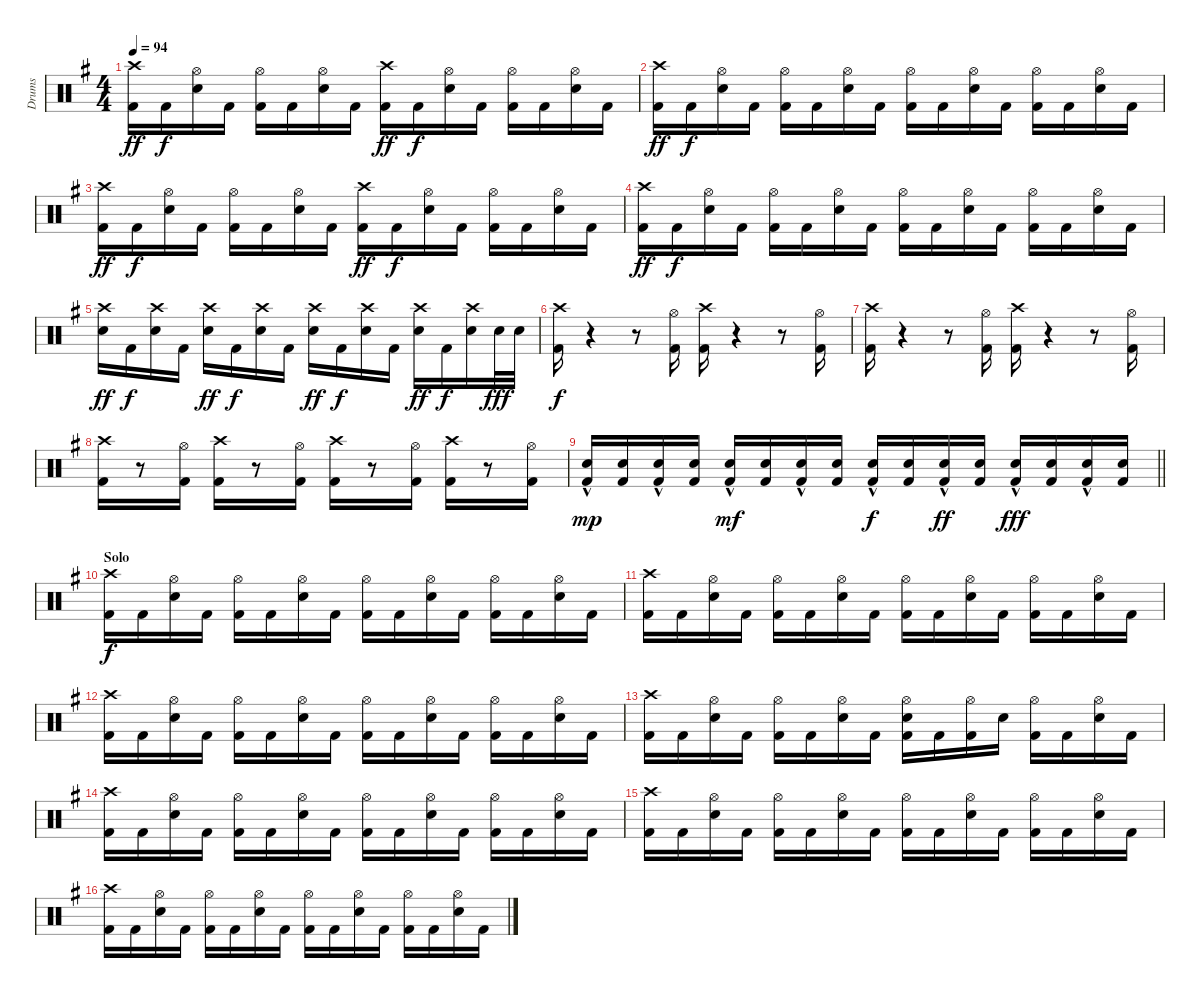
\track ("Drums" "Drums") {instrument percussion}
\staff {score}
\articulation defaults
\ts (4 4)
\tempo 94
\clef neutral
\ks g
("Crash high (hit)" "Kick (hit) 2").16{dy ff} "Kick (hit) 2".16{dy f} ("Hi-Hat (open)" "Snare (hit) 2").16 "Kick (hit) 2".16 ("Hi-Hat (open)" "Kick (hit) 2").16 "Kick (hit) 2".16 ("Hi-Hat (open)" "Snare (hit) 2").16 "Kick (hit) 2".16 ("Crash high (hit)" "Kick (hit) 2").16{dy ff} "Kick (hit) 2".16{dy f} ("Hi-Hat (open)" "Snare (hit) 2").16 "Kick (hit) 2".16 ("Hi-Hat (open)" "Kick (hit) 2").16 "Kick (hit) 2".16 ("Hi-Hat (open)" "Snare (hit) 2").16 "Kick (hit) 2".16 |
("Crash high (hit)" "Kick (hit) 2").16{dy ff} "Kick (hit) 2".16{dy f} ("Hi-Hat (open)" "Snare (hit) 2").16 "Kick (hit) 2".16 ("Hi-Hat (open)" "Kick (hit) 2").16 "Kick (hit) 2".16 ("Hi-Hat (open)" "Snare (hit) 2").16 "Kick (hit) 2".16 ("Hi-Hat (open)" "Kick (hit) 2").16 "Kick (hit) 2".16 ("Hi-Hat (open)" "Snare (hit) 2").16 "Kick (hit) 2".16 ("Hi-Hat (open)" "Kick (hit) 2").16 "Kick (hit) 2".16 ("Hi-Hat (open)" "Snare (hit) 2").16 "Kick (hit) 2".16 |
("Crash high (hit)" "Kick (hit) 2").16{dy ff} "Kick (hit) 2".16{dy f} ("Hi-Hat (open)" "Snare (hit) 2").16 "Kick (hit) 2".16 ("Hi-Hat (open)" "Kick (hit) 2").16 "Kick (hit) 2".16 ("Hi-Hat (open)" "Snare (hit) 2").16 "Kick (hit) 2".16 ("Crash high (hit)" "Kick (hit) 2").16{dy ff} "Kick (hit) 2".16{dy f} ("Hi-Hat (open)" "Snare (hit) 2").16 "Kick (hit) 2".16 ("Hi-Hat (open)" "Kick (hit) 2").16 "Kick (hit) 2".16 ("Hi-Hat (open)" "Snare (hit) 2").16 "Kick (hit) 2".16 |
("Crash high (hit)" "Kick (hit) 2").16{dy ff} "Kick (hit) 2".16{dy f} ("Hi-Hat (open)" "Snare (hit) 2").16 "Kick (hit) 2".16 ("Hi-Hat (open)" "Kick (hit) 2").16 "Kick (hit) 2".16 ("Hi-Hat (open)" "Snare (hit) 2").16 "Kick (hit) 2".16 ("Hi-Hat (open)" "Kick (hit) 2").16 "Kick (hit) 2".16 ("Hi-Hat (open)" "Snare (hit) 2").16 "Kick (hit) 2".16 ("Hi-Hat (open)" "Kick (hit) 2").16 "Kick (hit) 2".16 ("Hi-Hat (open)" "Snare (hit) 2").16 "Kick (hit) 2".16 |
("Crash high (hit)" "Snare (hit) 2").16{dy ff} "Kick (hit) 2".16{dy f} ("Crash high (hit)" "Snare (hit) 2").16 "Kick (hit) 2".16 ("Crash high (hit)" "Snare (hit) 2").16{dy ff} "Kick (hit) 2".16{dy f} ("Crash high (hit)" "Snare (hit) 2").16 "Kick (hit) 2".16 ("Crash high (hit)" "Snare (hit) 2").16{dy ff} "Kick (hit) 2".16{dy f} ("Crash high (hit)" "Snare (hit) 2").16 "Kick (hit) 2".16 ("Crash high (hit)" "Snare (hit) 2").16{dy ff} "Kick (hit) 2".16{dy f} ("Crash high (hit)" "Snare (hit) 2").16 "Snare (hit) 2".32{dy fff} "Snare (hit) 2".32 |
("Crash high (hit)" "Kick (hit) 2").16{dy f} r.4 r.8 ("Hi-Hat (open)" "Kick (hit) 2").16 ("Crash high (hit)" "Kick (hit) 2").16 r.4 r.8 ("Hi-Hat (open)" "Kick (hit) 2").16 |
("Crash high (hit)" "Kick (hit) 2").16 r.4 r.8 ("Hi-Hat (open)" "Kick (hit) 2").16 ("Crash high (hit)" "Kick (hit) 2").16 r.4 r.8 ("Hi-Hat (open)" "Kick (hit) 2").16 |
("Crash high (hit)" "Kick (hit) 2").16 r.8 ("Hi-Hat (open)" "Kick (hit) 2").16 ("Crash high (hit)" "Kick (hit) 2").16 r.8 ("Hi-Hat (open)" "Kick (hit) 2").16 ("Crash high (hit)" "Kick (hit) 2").16 r.8 ("Hi-Hat (open)" "Kick (hit) 2").16 ("Crash high (hit)" "Kick (hit) 2").16 r.8 ("Hi-Hat (open)" "Kick (hit) 2").16 |
\barLineRight lightlight
("Snare (hit) 2"{hac} "Kick (hit) 2").16{dy mp} ("Snare (hit) 2" "Kick (hit) 2").16 ("Snare (hit) 2"{hac} "Kick (hit) 2").16 ("Snare (hit) 2" "Kick (hit) 2").16 ("Snare (hit) 2"{hac} "Kick (hit) 2").16{dy mf} ("Snare (hit) 2" "Kick (hit) 2").16 ("Snare (hit) 2"{hac} "Kick (hit) 2").16 ("Snare (hit) 2" "Kick (hit) 2").16 ("Snare (hit) 2"{hac} "Kick (hit) 2").16{dy f} ("Snare (hit) 2" "Kick (hit) 2").16 ("Snare (hit) 2"{hac} "Kick (hit) 2").16{dy ff} ("Snare (hit) 2" "Kick (hit) 2").16 ("Snare (hit) 2"{hac} "Kick (hit) 2").16{dy fff} ("Snare (hit) 2" "Kick (hit) 2").16 ("Snare (hit) 2"{hac} "Kick (hit) 2").16 ("Snare (hit) 2" "Kick (hit) 2").16 |
\section ("" "Solo")
("Crash high (hit)" "Kick (hit) 2").16{dy f} "Kick (hit) 2".16 ("Hi-Hat (open)" "Snare (hit) 2").16 "Kick (hit) 2".16 ("Hi-Hat (open)" "Kick (hit) 2").16 "Kick (hit) 2".16 ("Hi-Hat (open)" "Snare (hit) 2").16 "Kick (hit) 2".16 ("Hi-Hat (open)" "Kick (hit) 2").16 "Kick (hit) 2".16 ("Hi-Hat (open)" "Snare (hit) 2").16 "Kick (hit) 2".16 ("Hi-Hat (open)" "Kick (hit) 2").16 "Kick (hit) 2".16 ("Hi-Hat (open)" "Snare (hit) 2").16 "Kick (hit) 2".16 |
("Crash high (hit)" "Kick (hit) 2").16 "Kick (hit) 2".16 ("Hi-Hat (open)" "Snare (hit) 2").16 "Kick (hit) 2".16 ("Hi-Hat (open)" "Kick (hit) 2").16 "Kick (hit) 2".16 ("Hi-Hat (open)" "Snare (hit) 2").16 "Kick (hit) 2".16 ("Hi-Hat (open)" "Kick (hit) 2").16 "Kick (hit) 2".16 ("Hi-Hat (open)" "Snare (hit) 2").16 "Kick (hit) 2".16 ("Hi-Hat (open)" "Kick (hit) 2").16 "Kick (hit) 2".16 ("Hi-Hat (open)" "Snare (hit) 2").16 "Kick (hit) 2".16 |
("Crash high (hit)" "Kick (hit) 2").16 "Kick (hit) 2".16 ("Hi-Hat (open)" "Snare (hit) 2").16 "Kick (hit) 2".16 ("Hi-Hat (open)" "Kick (hit) 2").16 "Kick (hit) 2".16 ("Hi-Hat (open)" "Snare (hit) 2").16 "Kick (hit) 2".16 ("Hi-Hat (open)" "Kick (hit) 2").16 "Kick (hit) 2".16 ("Hi-Hat (open)" "Snare (hit) 2").16 "Kick (hit) 2".16 ("Hi-Hat (open)" "Kick (hit) 2").16 "Kick (hit) 2".16 ("Hi-Hat (open)" "Snare (hit) 2").16 "Kick (hit) 2".16 |
("Crash high (hit)" "Kick (hit) 2").16 "Kick (hit) 2".16 ("Hi-Hat (open)" "Snare (hit) 2").16 "Kick (hit) 2".16 ("Hi-Hat (open)" "Kick (hit) 2").16 "Kick (hit) 2".16 ("Hi-Hat (open)" "Snare (hit) 2").16 "Kick (hit) 2".16 ("Hi-Hat (open)" "Snare (hit) 2" "Kick (hit) 2").16 "Kick (hit) 2".16 ("Hi-Hat (open)" "Kick (hit) 2").16 "Snare (hit) 2".16 ("Hi-Hat (open)" "Kick (hit) 2").16 "Kick (hit) 2".16 ("Hi-Hat (open)" "Snare (hit) 2").16 "Kick (hit) 2".16 |
("Crash high (hit)" "Kick (hit) 2").16 "Kick (hit) 2".16 ("Hi-Hat (open)" "Snare (hit) 2").16 "Kick (hit) 2".16 ("Hi-Hat (open)" "Kick (hit) 2").16 "Kick (hit) 2".16 ("Hi-Hat (open)" "Snare (hit) 2").16 "Kick (hit) 2".16 ("Hi-Hat (open)" "Kick (hit) 2").16 "Kick (hit) 2".16 ("Hi-Hat (open)" "Snare (hit) 2").16 "Kick (hit) 2".16 ("Hi-Hat (open)" "Kick (hit) 2").16 "Kick (hit) 2".16 ("Hi-Hat (open)" "Snare (hit) 2").16 "Kick (hit) 2".16 |
("Crash high (hit)" "Kick (hit) 2").16 "Kick (hit) 2".16 ("Hi-Hat (open)" "Snare (hit) 2").16 "Kick (hit) 2".16 ("Hi-Hat (open)" "Kick (hit) 2").16 "Kick (hit) 2".16 ("Hi-Hat (open)" "Snare (hit) 2").16 "Kick (hit) 2".16 ("Hi-Hat (open)" "Kick (hit) 2").16 "Kick (hit) 2".16 ("Hi-Hat (open)" "Snare (hit) 2").16 "Kick (hit) 2".16 ("Hi-Hat (open)" "Kick (hit) 2").16 "Kick (hit) 2".16 ("Hi-Hat (open)" "Snare (hit) 2").16 "Kick (hit) 2".16 |
("Crash high (hit)" "Kick (hit) 2").16 "Kick (hit) 2".16 ("Hi-Hat (open)" "Snare (hit) 2").16 "Kick (hit) 2".16 ("Hi-Hat (open)" "Kick (hit) 2").16 "Kick (hit) 2".16 ("Hi-Hat (open)" "Snare (hit) 2").16 "Kick (hit) 2".16 ("Hi-Hat (open)" "Kick (hit) 2").16 "Kick (hit) 2".16 ("Hi-Hat (open)" "Snare (hit) 2").16 "Kick (hit) 2".16 ("Hi-Hat (open)" "Kick (hit) 2").16 "Kick (hit) 2".16 ("Hi-Hat (open)" "Snare (hit) 2").16 "Kick (hit) 2".16
